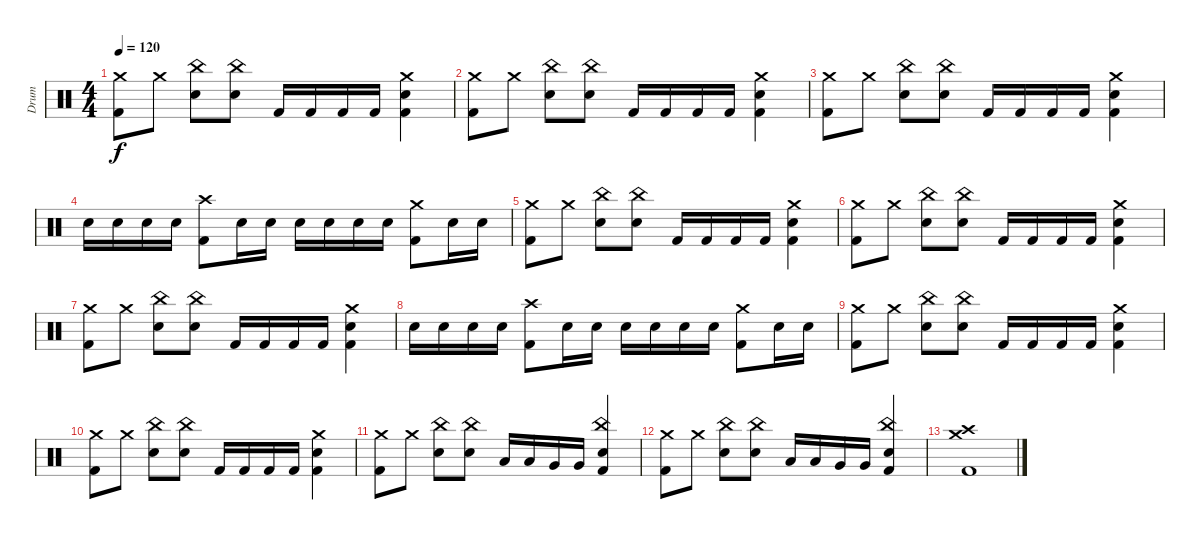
\track ("Drum" "Drum") {instrument percussion}
\staff {score}
\articulation defaults
\ts (4 4)
\tempo 120
\clef neutral
\ks c
("Crash medium (hit)" "Kick (hit) 2").8{dy f} "Crash medium (hit)".8 ("China (hit)" "Snare (hit) 2").8 ("China (hit)" "Snare (hit) 2").8 "Kick (hit) 2".16 "Kick (hit) 2".16 "Kick (hit) 2".16 "Kick (hit) 2".16 ("Crash medium (hit)" "Snare (hit) 2" "Kick (hit) 2").4 |
("Crash medium (hit)" "Kick (hit) 2").8 "Crash medium (hit)".8 ("China (hit)" "Snare (hit) 2").8 ("China (hit)" "Snare (hit) 2").8 "Kick (hit) 2".16 "Kick (hit) 2".16 "Kick (hit) 2".16 "Kick (hit) 2".16 ("Crash medium (hit)" "Snare (hit) 2" "Kick (hit) 2").4 |
("Crash medium (hit)" "Kick (hit) 2").8 "Crash medium (hit)".8 ("China (hit)" "Snare (hit) 2").8 ("China (hit)" "Snare (hit) 2").8 "Kick (hit) 2".16 "Kick (hit) 2".16 "Kick (hit) 2".16 "Kick (hit) 2".16 ("Crash medium (hit)" "Snare (hit) 2" "Kick (hit) 2").4 |
"Snare (hit) 2".16 "Snare (hit) 2".16 "Snare (hit) 2".16 "Snare (hit) 2".16 ("Crash high (hit)" "Kick (hit) 2").8 "Snare (hit) 2".16 "Snare (hit) 2".16 "Snare (hit) 2".16 "Snare (hit) 2".16 "Snare (hit) 2".16 "Snare (hit) 2".16 ("Crash medium (hit)" "Kick (hit) 2").8 "Snare (hit) 2".16 "Snare (hit) 2".16 |
("Crash medium (hit)" "Kick (hit) 2").8 "Crash medium (hit)".8 ("China (hit)" "Snare (hit) 2").8 ("China (hit)" "Snare (hit) 2").8 "Kick (hit) 2".16 "Kick (hit) 2".16 "Kick (hit) 2".16 "Kick (hit) 2".16 ("Crash medium (hit)" "Snare (hit) 2" "Kick (hit) 2").4 |
("Crash medium (hit)" "Kick (hit) 2").8 "Crash medium (hit)".8 ("China (hit)" "Snare (hit) 2").8 ("China (hit)" "Snare (hit) 2").8 "Kick (hit) 2".16 "Kick (hit) 2".16 "Kick (hit) 2".16 "Kick (hit) 2".16 ("Crash medium (hit)" "Snare (hit) 2" "Kick (hit) 2").4 |
("Crash medium (hit)" "Kick (hit) 2").8 "Crash medium (hit)".8 ("China (hit)" "Snare (hit) 2").8 ("China (hit)" "Snare (hit) 2").8 "Kick (hit) 2".16 "Kick (hit) 2".16 "Kick (hit) 2".16 "Kick (hit) 2".16 ("Crash medium (hit)" "Snare (hit) 2" "Kick (hit) 2").4 |
"Snare (hit) 2".16 "Snare (hit) 2".16 "Snare (hit) 2".16 "Snare (hit) 2".16 ("Crash high (hit)" "Kick (hit) 2").8 "Snare (hit) 2".16 "Snare (hit) 2".16 "Snare (hit) 2".16 "Snare (hit) 2".16 "Snare (hit) 2".16 "Snare (hit) 2".16 ("Crash medium (hit)" "Kick (hit) 2").8 "Snare (hit) 2".16 "Snare (hit) 2".16 |
("Crash medium (hit)" "Kick (hit) 2").8 "Crash medium (hit)".8 ("China (hit)" "Snare (hit) 2").8 ("China (hit)" "Snare (hit) 2").8 "Kick (hit) 2".16 "Kick (hit) 2".16 "Kick (hit) 2".16 "Kick (hit) 2".16 ("Crash medium (hit)" "Snare (hit) 2" "Kick (hit) 2").4 |
("Crash medium (hit)" "Kick (hit) 2").8 "Crash medium (hit)".8 ("China (hit)" "Snare (hit) 2").8 ("China (hit)" "Snare (hit) 2").8 "Kick (hit) 2".16 "Kick (hit) 2".16 "Kick (hit) 2".16 "Kick (hit) 2".16 ("Crash medium (hit)" "Snare (hit) 2" "Kick (hit) 2").4 |
("Crash medium (hit)" "Kick (hit) 2").8 "Crash medium (hit)".8 ("China (hit)" "Snare (hit) 2").8 ("China (hit)" "Snare (hit) 2").8 "Low Floor Tom (hit)".16 "Low Floor Tom (hit)".16 "Very Low Tom (hit)".16 "Very Low Tom (hit)".16 ("China (hit)" "Snare (hit) 2" "Kick (hit) 2").4 |
("Crash medium (hit)" "Kick (hit) 2").8 "Crash medium (hit)".8 ("China (hit)" "Snare (hit) 2").8 ("China (hit)" "Snare (hit) 2").8 "Low Floor Tom (hit)".16 "Low Floor Tom (hit)".16 "Very Low Tom (hit)".16 "Very Low Tom (hit)".16 ("China (hit)" "Snare (hit) 2" "Kick (hit) 2").4 |
("Crash medium (hit)" "Crash high (hit)" "Kick (hit) 2").1
